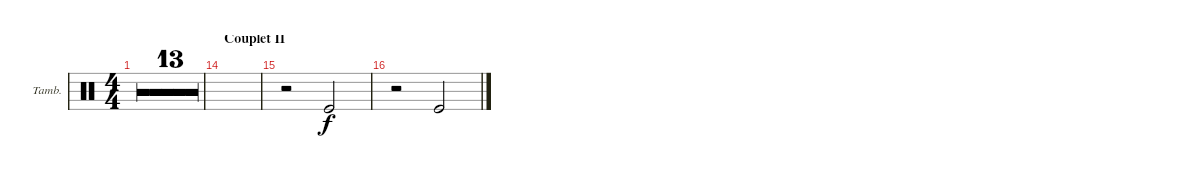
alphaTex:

\bracketExtendMode groupsimilarinstruments
\firstSystemTrackNameOrientation horizontal
\otherSystemsTrackNameOrientation horizontal
\track ("Ray Cooper" "Tamb.") {multiBarRest instrument percussion}
\staff {score}
\articulation defaults
\ts (4 4)
\tempo 116
\clef neutral
\ks c
|
|
|
|
|
|
|
|
|
|
|
|
\barLineRight lightlight
|
\section ("" "Couplet II")
|
r.2 "Kick (hit)".2 |
r.2 "Kick (hit)".2
